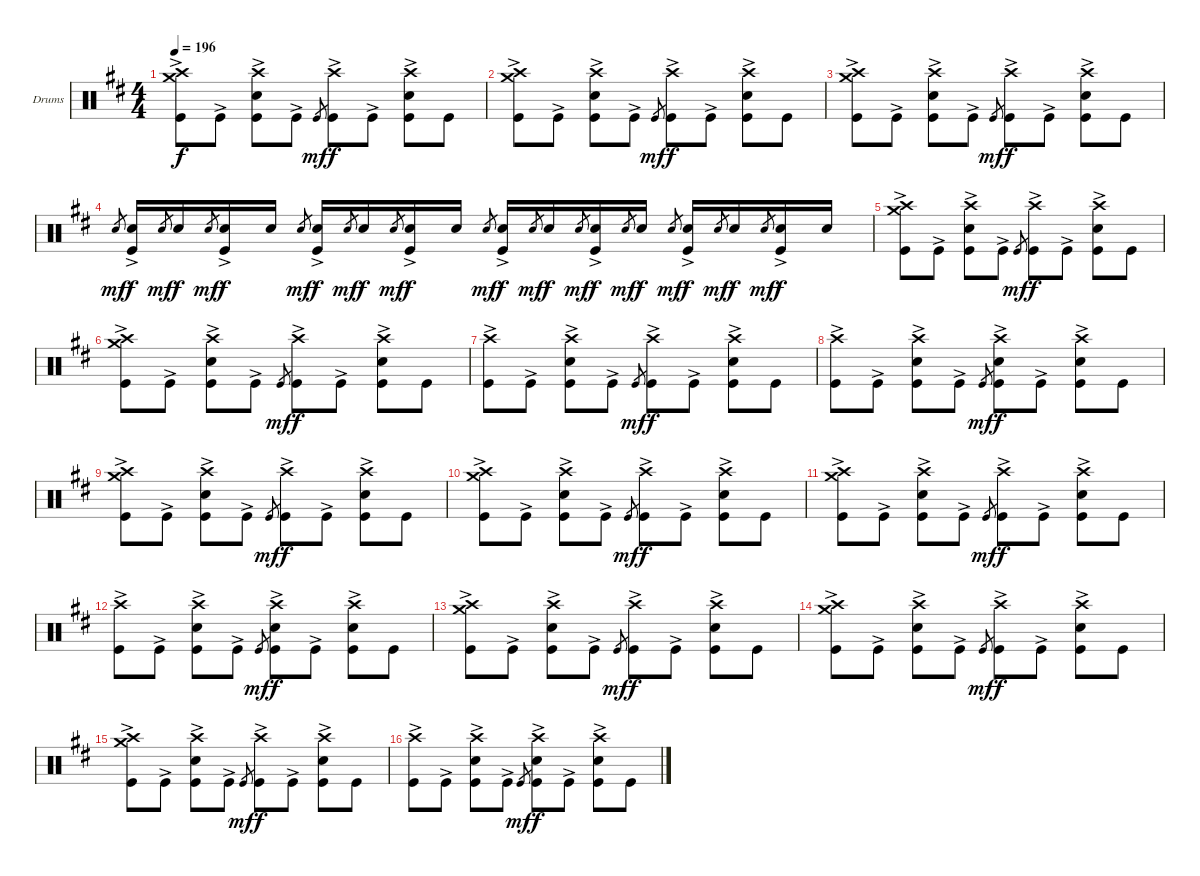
\defaultSystemsLayout 4
\bracketExtendMode groupsimilarinstruments
\firstSystemTrackNameOrientation horizontal
\otherSystemsTrackNameOrientation horizontal
\track ("Drumkit" "Drums") {instrument percussion}
\staff {score}
\articulation defaults
\ts (4 4)
\tempo 196
\clef neutral
\ks d
("Crash medium (hit)" "Crash high (hit)" "Kick (hit)"{ac}).8{dy f} "Kick (hit)"{ac}.8 ("Crash high (hit)" "Snare (hit) 2" "Kick (hit)"{ac}).8 "Kick (hit)"{ac}.8 "Kick (hit)".8{gr dy mf} ("Crash high (hit)" "Kick (hit)"{ac}).8{dy f} "Kick (hit)"{ac}.8 ("Crash high (hit)" "Snare (hit) 2" "Kick (hit)"{ac}).8 "Kick (hit)".8 |
("Crash medium (hit)" "Crash high (hit)" "Kick (hit)"{ac}).8 "Kick (hit)"{ac}.8 ("Crash high (hit)" "Snare (hit) 2" "Kick (hit)"{ac}).8 "Kick (hit)"{ac}.8 "Kick (hit)".8{gr dy mf} ("Crash high (hit)" "Kick (hit)"{ac}).8{dy f} "Kick (hit)"{ac}.8 ("Crash high (hit)" "Snare (hit) 2" "Kick (hit)"{ac}).8 "Kick (hit)".8 |
("Crash medium (hit)" "Crash high (hit)" "Kick (hit)"{ac}).8 "Kick (hit)"{ac}.8 ("Crash high (hit)" "Snare (hit) 2" "Kick (hit)"{ac}).8 "Kick (hit)"{ac}.8 "Kick (hit)".8{gr dy mf} ("Crash high (hit)" "Kick (hit)"{ac}).8{dy f} "Kick (hit)"{ac}.8 ("Crash high (hit)" "Snare (hit) 2" "Kick (hit)"{ac}).8 "Kick (hit)".8 |
"Snare (hit) 2".8{gr dy mf} ("Snare (hit) 2" "Kick (hit)"{ac}).16{dy f} "Snare (hit) 2".8{gr dy mf} "Snare (hit) 2".16{dy f} "Snare (hit) 2".8{gr dy mf} ("Snare (hit) 2" "Kick (hit)"{ac}).16{dy f} "Snare (hit) 2".16 "Snare (hit) 2".8{gr dy mf} ("Snare (hit) 2" "Kick (hit)"{ac}).16{dy f} "Snare (hit) 2".8{gr dy mf} "Snare (hit) 2".16{dy f} "Snare (hit) 2".8{gr dy mf} ("Snare (hit) 2" "Kick (hit)"{ac}).16{dy f} "Snare (hit) 2".16 "Snare (hit) 2".8{gr dy mf} ("Snare (hit) 2" "Kick (hit)"{ac}).16{dy f} "Snare (hit) 2".8{gr dy mf} "Snare (hit) 2".16{dy f} "Snare (hit) 2".8{gr dy mf} ("Snare (hit) 2" "Kick (hit)"{ac}).16{dy f} "Snare (hit) 2".8{gr dy mf} "Snare (hit) 2".16{dy f} "Snare (hit) 2".8{gr dy mf} ("Snare (hit) 2" "Kick (hit)"{ac}).16{dy f} "Snare (hit) 2".8{gr dy mf} "Snare (hit) 2".16{dy f} "Snare (hit) 2".8{gr dy mf} ("Snare (hit) 2" "Kick (hit)"{ac}).16{dy f} "Snare (hit) 2".16 |
("Crash medium (hit)" "Crash high (hit)" "Kick (hit)"{ac}).8 "Kick (hit)"{ac}.8 ("Crash high (hit)" "Snare (hit) 2" "Kick (hit)"{ac}).8 "Kick (hit)"{ac}.8 "Kick (hit)".8{gr dy mf} ("Crash high (hit)" "Kick (hit)"{ac}).8{dy f} "Kick (hit)"{ac}.8 ("Crash high (hit)" "Snare (hit) 2" "Kick (hit)"{ac}).8 "Kick (hit)".8 |
("Crash medium (hit)" "Crash high (hit)" "Kick (hit)"{ac}).8 "Kick (hit)"{ac}.8 ("Crash high (hit)" "Snare (hit) 2" "Kick (hit)"{ac}).8 "Kick (hit)"{ac}.8 "Kick (hit)".8{gr dy mf} ("Crash high (hit)" "Kick (hit)"{ac}).8{dy f} "Kick (hit)"{ac}.8 ("Crash high (hit)" "Snare (hit) 2" "Kick (hit)"{ac}).8 "Kick (hit)".8 |
("Crash high (hit)" "Kick (hit)"{ac}).8 "Kick (hit)"{ac}.8 ("Crash high (hit)" "Snare (hit) 2" "Kick (hit)"{ac}).8 "Kick (hit)"{ac}.8 "Kick (hit)".8{gr dy mf} ("Crash high (hit)" "Kick (hit)"{ac}).8{dy f} "Kick (hit)"{ac}.8 ("Crash high (hit)" "Snare (hit) 2" "Kick (hit)"{ac}).8 "Kick (hit)".8 |
("Crash high (hit)" "Kick (hit)"{ac}).8 "Kick (hit)"{ac}.8 ("Crash high (hit)" "Snare (hit) 2" "Kick (hit)"{ac}).8 "Kick (hit)"{ac}.8 "Kick (hit)".8{gr dy mf} ("Crash high (hit)" "Snare (hit) 2" "Kick (hit)"{ac}).8{dy f} "Kick (hit)"{ac}.8 ("Crash high (hit)" "Snare (hit) 2" "Kick (hit)"{ac}).8 "Kick (hit)".8 |
("Crash medium (hit)" "Crash high (hit)" "Kick (hit)"{ac}).8 "Kick (hit)"{ac}.8 ("Crash high (hit)" "Snare (hit) 2" "Kick (hit)"{ac}).8 "Kick (hit)"{ac}.8 "Kick (hit)".8{gr dy mf} ("Crash high (hit)" "Kick (hit)"{ac}).8{dy f} "Kick (hit)"{ac}.8 ("Crash high (hit)" "Snare (hit) 2" "Kick (hit)"{ac}).8 "Kick (hit)".8 |
("Crash medium (hit)" "Crash high (hit)" "Kick (hit)"{ac}).8 "Kick (hit)"{ac}.8 ("Crash high (hit)" "Snare (hit) 2" "Kick (hit)"{ac}).8 "Kick (hit)"{ac}.8 "Kick (hit)".8{gr dy mf} ("Crash high (hit)" "Kick (hit)"{ac}).8{dy f} "Kick (hit)"{ac}.8 ("Crash high (hit)" "Snare (hit) 2" "Kick (hit)"{ac}).8 "Kick (hit)".8 |
("Crash medium (hit)" "Crash high (hit)" "Kick (hit)"{ac}).8 "Kick (hit)"{ac}.8 ("Crash high (hit)" "Snare (hit) 2" "Kick (hit)"{ac}).8 "Kick (hit)"{ac}.8 "Kick (hit)".8{gr dy mf} ("Crash high (hit)" "Kick (hit)"{ac}).8{dy f} "Kick (hit)"{ac}.8 ("Crash high (hit)" "Snare (hit) 2" "Kick (hit)"{ac}).8 "Kick (hit)".8 |
("Crash high (hit)" "Kick (hit)"{ac}).8 "Kick (hit)"{ac}.8 ("Crash high (hit)" "Snare (hit) 2" "Kick (hit)"{ac}).8 "Kick (hit)"{ac}.8 "Kick (hit)".8{gr dy mf} ("Crash high (hit)" "Snare (hit) 2" "Kick (hit)"{ac}).8{dy f} "Kick (hit)"{ac}.8 ("Crash high (hit)" "Snare (hit) 2" "Kick (hit)"{ac}).8 "Kick (hit)".8 |
("Crash medium (hit)" "Crash high (hit)" "Kick (hit)"{ac}).8 "Kick (hit)"{ac}.8 ("Crash high (hit)" "Snare (hit) 2" "Kick (hit)"{ac}).8 "Kick (hit)"{ac}.8 "Kick (hit)".8{gr dy mf} ("Crash high (hit)" "Kick (hit)"{ac}).8{dy f} "Kick (hit)"{ac}.8 ("Crash high (hit)" "Snare (hit) 2" "Kick (hit)"{ac}).8 "Kick (hit)".8 |
("Crash medium (hit)" "Crash high (hit)" "Kick (hit)"{ac}).8 "Kick (hit)"{ac}.8 ("Crash high (hit)" "Snare (hit) 2" "Kick (hit)"{ac}).8 "Kick (hit)"{ac}.8 "Kick (hit)".8{gr dy mf} ("Crash high (hit)" "Kick (hit)"{ac}).8{dy f} "Kick (hit)"{ac}.8 ("Crash high (hit)" "Snare (hit) 2" "Kick (hit)"{ac}).8 "Kick (hit)".8 |
("Crash medium (hit)" "Crash high (hit)" "Kick (hit)"{ac}).8 "Kick (hit)"{ac}.8 ("Crash high (hit)" "Snare (hit) 2" "Kick (hit)"{ac}).8 "Kick (hit)"{ac}.8 "Kick (hit)".8{gr dy mf} ("Crash high (hit)" "Kick (hit)"{ac}).8{dy f} "Kick (hit)"{ac}.8 ("Crash high (hit)" "Snare (hit) 2" "Kick (hit)"{ac}).8 "Kick (hit)".8 |
("Crash high (hit)" "Kick (hit)"{ac}).8 "Kick (hit)"{ac}.8 ("Crash high (hit)" "Snare (hit) 2" "Kick (hit)"{ac}).8 "Kick (hit)"{ac}.8 "Kick (hit)".8{gr dy mf} ("Crash high (hit)" "Snare (hit) 2" "Kick (hit)"{ac}).8{dy f} "Kick (hit)"{ac}.8 ("Crash high (hit)" "Snare (hit) 2" "Kick (hit)"{ac}).8 "Kick (hit)".8
